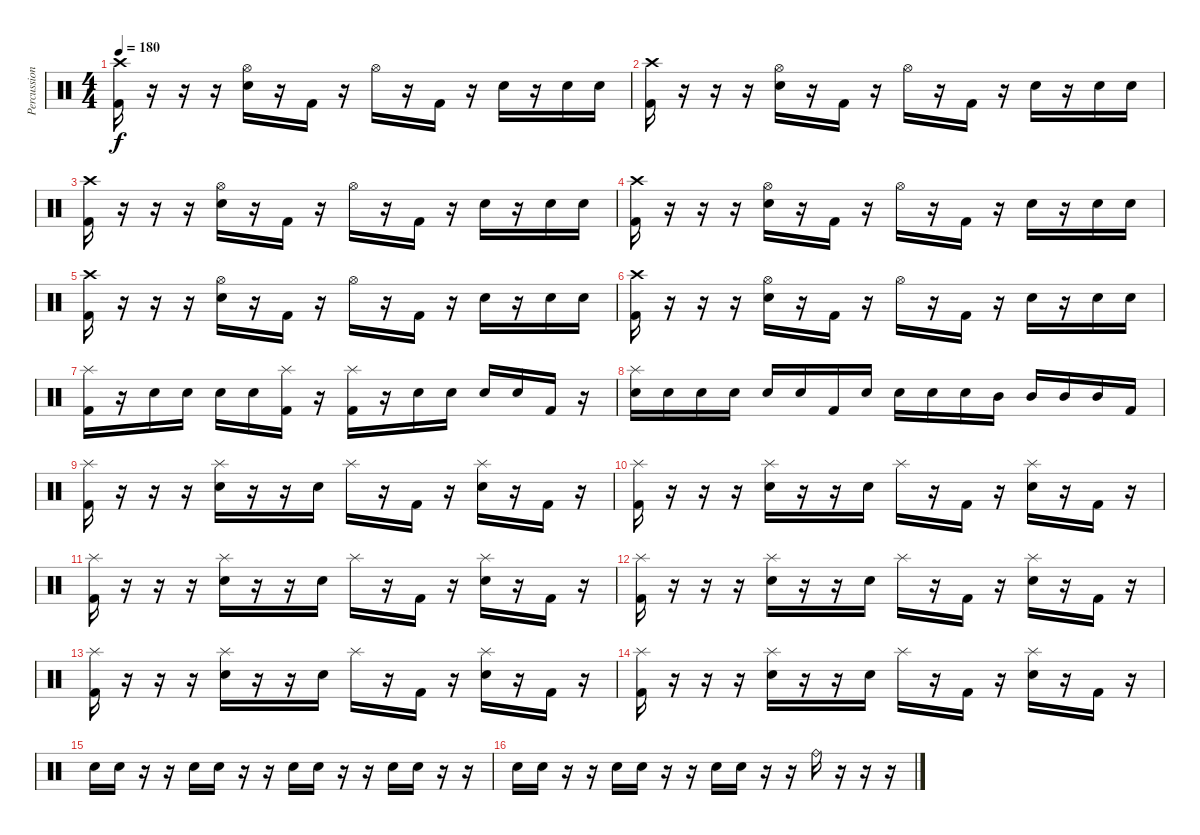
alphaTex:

\track ("Percussion" "Percussion") {instrument percussion}
\staff {score}
\articulation defaults
\ts (4 4)
\tempo 180
\clef neutral
\ks c
("Crash high (hit)" "Kick (hit) 2").16{dy f} r.16 r.16 r.16 ("Hi-Hat (open)" "Electric Snare (hit)").16 r.16 "Kick (hit) 2".16 r.16 "Hi-Hat (open)".16 r.16 "Kick (hit) 2".16 r.16 "Electric Snare (hit)".16 r.16 "Electric Snare (hit)".16 "Electric Snare (hit)".16 |
("Crash high (hit)" "Kick (hit) 2").16 r.16 r.16 r.16 ("Hi-Hat (open)" "Electric Snare (hit)").16 r.16 "Kick (hit) 2".16 r.16 "Hi-Hat (open)".16 r.16 "Kick (hit) 2".16 r.16 "Electric Snare (hit)".16 r.16 "Electric Snare (hit)".16 "Electric Snare (hit)".16 |
("Crash high (hit)" "Kick (hit) 2").16 r.16 r.16 r.16 ("Hi-Hat (open)" "Electric Snare (hit)").16 r.16 "Kick (hit) 2".16 r.16 "Hi-Hat (open)".16 r.16 "Kick (hit) 2".16 r.16 "Electric Snare (hit)".16 r.16 "Electric Snare (hit)".16 "Electric Snare (hit)".16 |
("Crash high (hit)" "Kick (hit) 2").16 r.16 r.16 r.16 ("Hi-Hat (open)" "Electric Snare (hit)").16 r.16 "Kick (hit) 2".16 r.16 "Hi-Hat (open)".16 r.16 "Kick (hit) 2".16 r.16 "Electric Snare (hit)".16 r.16 "Electric Snare (hit)".16 "Electric Snare (hit)".16 |
("Crash high (hit)" "Kick (hit) 2").16 r.16 r.16 r.16 ("Hi-Hat (open)" "Electric Snare (hit)").16 r.16 "Kick (hit) 2".16 r.16 "Hi-Hat (open)".16 r.16 "Kick (hit) 2".16 r.16 "Electric Snare (hit)".16 r.16 "Electric Snare (hit)".16 "Electric Snare (hit)".16 |
("Crash high (hit)" "Kick (hit) 2").16 r.16 r.16 r.16 ("Hi-Hat (open)" "Electric Snare (hit)").16 r.16 "Kick (hit) 2".16 r.16 "Hi-Hat (open)".16 r.16 "Kick (hit) 2".16 r.16 "Electric Snare (hit)".16 r.16 "Electric Snare (hit)".16 "Electric Snare (hit)".16 |
("Splash (hit)" "Kick (hit) 2").16 r.16 "Electric Snare (hit)".16 "Electric Snare (hit)".16 "Electric Snare (hit)".16 "Electric Snare (hit)".16 ("Splash (hit)" "Kick (hit) 2").16 r.16 ("Splash (hit)" "Kick (hit) 2").16 r.16 "Electric Snare (hit)".16 "Electric Snare (hit)".16 "Electric Snare (hit)".16 "Electric Snare (hit)".16 "Kick (hit) 2".16 r.16 |
("Splash (hit)" "Electric Snare (hit)").16 "Electric Snare (hit)".16 "Electric Snare (hit)".16 "Electric Snare (hit)".16 "Electric Snare (hit)".16 "Electric Snare (hit)".16 "Kick (hit) 2".16 "Electric Snare (hit)".16 "Electric Snare (hit)".16 "Electric Snare (hit)".16 "Electric Snare (hit)".16 "Mid Tom (hit)".16 "Mid Tom (hit)".16 "Mid Tom (hit)".16 "Mid Tom (hit)".16 "Kick (hit) 2".16 |
("Splash (hit)" "Kick (hit) 2").16 r.16 r.16 r.16 ("Splash (hit)" "Electric Snare (hit)").16 r.16 r.16 "Electric Snare (hit)".16 "Splash (hit)".16 r.16 "Kick (hit) 2".16 r.16 ("Splash (hit)" "Electric Snare (hit)").16 r.16 "Kick (hit) 2".16 r.16 |
("Splash (hit)" "Kick (hit) 2").16 r.16 r.16 r.16 ("Splash (hit)" "Electric Snare (hit)").16 r.16 r.16 "Electric Snare (hit)".16 "Splash (hit)".16 r.16 "Kick (hit) 2".16 r.16 ("Splash (hit)" "Electric Snare (hit)").16 r.16 "Kick (hit) 2".16 r.16 |
("Splash (hit)" "Kick (hit) 2").16 r.16 r.16 r.16 ("Splash (hit)" "Electric Snare (hit)").16 r.16 r.16 "Electric Snare (hit)".16 "Splash (hit)".16 r.16 "Kick (hit) 2".16 r.16 ("Splash (hit)" "Electric Snare (hit)").16 r.16 "Kick (hit) 2".16 r.16 |
("Splash (hit)" "Kick (hit) 2").16 r.16 r.16 r.16 ("Splash (hit)" "Electric Snare (hit)").16 r.16 r.16 "Electric Snare (hit)".16 "Splash (hit)".16 r.16 "Kick (hit) 2".16 r.16 ("Splash (hit)" "Electric Snare (hit)").16 r.16 "Kick (hit) 2".16 r.16 |
("Splash (hit)" "Kick (hit) 2").16 r.16 r.16 r.16 ("Splash (hit)" "Electric Snare (hit)").16 r.16 r.16 "Electric Snare (hit)".16 "Splash (hit)".16 r.16 "Kick (hit) 2".16 r.16 ("Splash (hit)" "Electric Snare (hit)").16 r.16 "Kick (hit) 2".16 r.16 |
("Splash (hit)" "Kick (hit) 2").16 r.16 r.16 r.16 ("Splash (hit)" "Electric Snare (hit)").16 r.16 r.16 "Electric Snare (hit)".16 "Splash (hit)".16 r.16 "Kick (hit) 2".16 r.16 ("Splash (hit)" "Electric Snare (hit)").16 r.16 "Kick (hit) 2".16 r.16 |
"Electric Snare (hit)".16 "Electric Snare (hit)".16 r.16 r.16 "Electric Snare (hit)".16 "Electric Snare (hit)".16 r.16 r.16 "Electric Snare (hit)".16 "Electric Snare (hit)".16 r.16 r.16 "Electric Snare (hit)".16 "Electric Snare (hit)".16 r.16 r.16 |
"Electric Snare (hit)".16 "Electric Snare (hit)".16 r.16 r.16 "Electric Snare (hit)".16 "Electric Snare (hit)".16 r.16 r.16 "Electric Snare (hit)".16 "Electric Snare (hit)".16 r.16 r.16 "Ride (bell)".16 r.16 r.16 r.16
